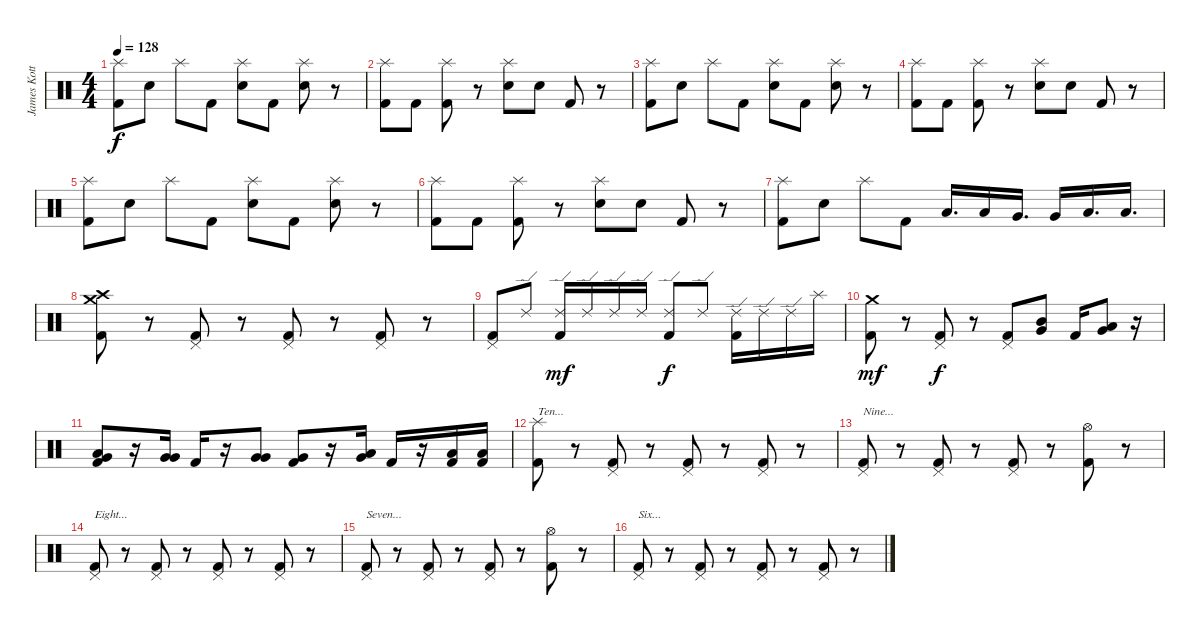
\track ("James Kottak" "James Kott") {instrument percussion}
\staff {score}
\articulation defaults
\ts (4 4)
\tempo 128
\clef neutral
\ks c
("Splash (hit)" "Kick (hit) 2").8{dy f} "Electric Snare (hit)".8 "Splash (hit)".8 "Kick (hit) 2".8 ("Splash (hit)" "Electric Snare (hit)").8 "Kick (hit) 2".8 ("Splash (hit)" "Electric Snare (hit)").8 r.8 |
("Splash (hit)" "Kick (hit) 2").8 "Kick (hit) 2".8 ("Splash (hit)" "Kick (hit) 2").8 r.8 ("Splash (hit)" "Electric Snare (hit)").8 "Electric Snare (hit)".8 "Kick (hit) 2".8 r.8 |
("Splash (hit)" "Kick (hit) 2").8 "Electric Snare (hit)".8 "Splash (hit)".8 "Kick (hit) 2".8 ("Splash (hit)" "Electric Snare (hit)").8 "Kick (hit) 2".8 ("Splash (hit)" "Electric Snare (hit)").8 r.8 |
("Splash (hit)" "Kick (hit) 2").8 "Kick (hit) 2".8 ("Splash (hit)" "Kick (hit) 2").8 r.8 ("Splash (hit)" "Electric Snare (hit)").8 "Electric Snare (hit)".8 "Kick (hit) 2".8 r.8 |
("Splash (hit)" "Kick (hit) 2").8 "Electric Snare (hit)".8 "Splash (hit)".8 "Kick (hit) 2".8 ("Splash (hit)" "Electric Snare (hit)").8 "Kick (hit) 2".8 ("Splash (hit)" "Electric Snare (hit)").8 r.8 |
("Splash (hit)" "Kick (hit) 2").8 "Kick (hit) 2".8 ("Splash (hit)" "Kick (hit) 2").8 r.8 ("Splash (hit)" "Electric Snare (hit)").8 "Electric Snare (hit)".8 "Kick (hit) 2".8 r.8 |
("Splash (hit)" "Kick (hit) 2").8 "Electric Snare (hit)".8 "Splash (hit)".8 "Kick (hit) 2".8 "Low Tom (hit)".16{d} "Low Tom (hit)".16 "Very Low Tom (hit)".16{d} "Very Low Tom (hit)".16 "Low Floor Tom (hit)".16{d} "Low Floor Tom (hit)".16{d} |
("Crash high (hit)" "Crash medium (hit)" "Kick (hit) 2").8 r.8 ("Pedal Hi-Hat (hit)" "Kick (hit) 2").8 r.8 ("Pedal Hi-Hat (hit)" "Kick (hit) 2").8 r.8 ("Pedal Hi-Hat (hit)" "Kick (hit) 2").8 r.8 |
("Pedal Hi-Hat (hit)" "Kick (hit) 2").8 "Ride (edge) 2".8 ("Ride (edge) 2" "Kick (hit) 2").16{dy mf} "Ride (edge) 2".16 "Ride (edge) 2".16 "Ride (edge) 2".16 ("Ride (edge) 2" "Kick (hit) 2").8{dy f} "Ride (edge) 2".8 ("Ride (edge) 2" "Kick (hit) 2").16 "Ride (edge) 2".16 "Ride (edge) 2".16 "Splash (hit)".16 |
("Crash medium (hit)" "Kick (hit) 2").8{dy mf} r.8 ("Pedal Hi-Hat (hit)" "Kick (hit) 2").8{dy f} r.8 ("Pedal Hi-Hat (hit)" "Kick (hit) 2").8 ("Mid Tom (hit)" "Very Low Tom (hit)").8{bd 240} "Kick (hit) 2".16 ("Low Tom (hit)" "Very Low Tom (hit)").8{bd 240} r.16 |
("Low Tom (hit)" "Very Low Tom (hit)" "Kick (hit) 2").8{bd 240} r.16 ("Very Low Tom (hit)" "Very Low Tom (hit)").16{bd 240} "Kick (hit) 2".16 r.16 ("Very Low Tom (hit)" "Very Low Tom (hit)").8{bd 240} ("Very Low Tom (hit)" "Kick (hit) 2").8{bd 240} r.16 ("Low Floor Tom (hit)" "Very Low Tom (hit)").16{bd 240} "Kick (hit) 2".16 r.16 ("Low Floor Tom (hit)" "Kick (hit) 2").16 ("Low Floor Tom (hit)" "Kick (hit) 2").16 |
("Splash (hit)" "Kick (hit) 2").8{txt "Ten..."} r.8 ("Pedal Hi-Hat (hit)" "Kick (hit) 2").8 r.8 ("Pedal Hi-Hat (hit)" "Kick (hit) 2").8 r.8 ("Pedal Hi-Hat (hit)" "Kick (hit) 2").8 r.8 |
("Pedal Hi-Hat (hit)" "Kick (hit) 2").8{txt "Nine..."} r.8 ("Pedal Hi-Hat (hit)" "Kick (hit) 2").8 r.8 ("Pedal Hi-Hat (hit)" "Kick (hit) 2").8 r.8 ("Hi-Hat (open)" "Kick (hit) 2").8 r.8 |
("Pedal Hi-Hat (hit)" "Kick (hit) 2").8{txt "Eight..."} r.8 ("Pedal Hi-Hat (hit)" "Kick (hit) 2").8 r.8 ("Pedal Hi-Hat (hit)" "Kick (hit) 2").8 r.8 ("Pedal Hi-Hat (hit)" "Kick (hit) 2").8 r.8 |
("Pedal Hi-Hat (hit)" "Kick (hit) 2").8{txt "Seven..."} r.8 ("Pedal Hi-Hat (hit)" "Kick (hit) 2").8 r.8 ("Pedal Hi-Hat (hit)" "Kick (hit) 2").8 r.8 ("Hi-Hat (open)" "Kick (hit) 2").8 r.8 |
("Pedal Hi-Hat (hit)" "Kick (hit) 2").8{txt "Six..."} r.8 ("Pedal Hi-Hat (hit)" "Kick (hit) 2").8 r.8 ("Pedal Hi-Hat (hit)" "Kick (hit) 2").8 r.8 ("Pedal Hi-Hat (hit)" "Kick (hit) 2").8 r.8
